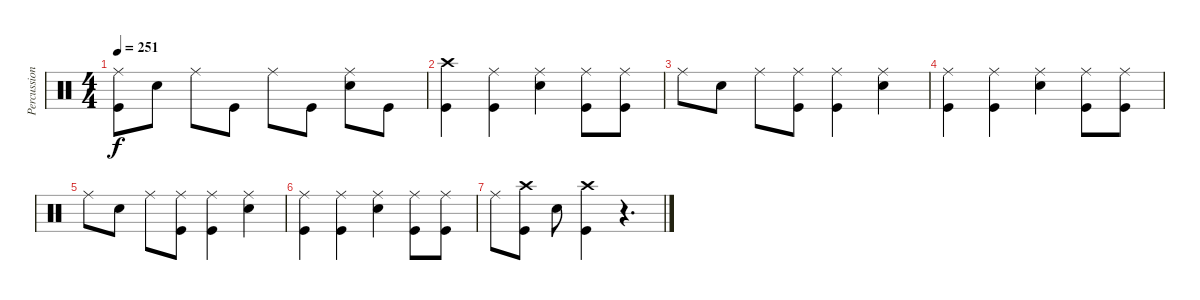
\track ("Percussion" "Percussion") {instrument percussion}
\staff {score}
\articulation defaults
\ts (4 4)
\tempo 251
\clef neutral
\ks c
("Ride (middle)" "Kick (hit)").8{dy f} "Snare (hit) 2".8 "Ride (middle)".8 "Kick (hit)".8 "Ride (middle)".8 "Kick (hit)".8 ("Ride (middle)" "Snare (hit) 2").8 "Kick (hit)".8 |
("Crash high (hit)" "Kick (hit)").4 ("Ride (middle)" "Kick (hit)").4 ("Ride (middle)" "Snare (hit) 2").4 ("Ride (middle)" "Kick (hit)").8 ("Ride (middle)" "Kick (hit)").8 |
"Ride (middle)".8 "Snare (hit) 2".8 "Ride (middle)".8 ("Ride (middle)" "Kick (hit)").8 ("Ride (middle)" "Kick (hit)").4 ("Ride (middle)" "Snare (hit) 2").4 |
("Ride (middle)" "Kick (hit)").4 ("Ride (middle)" "Kick (hit)").4 ("Ride (middle)" "Snare (hit) 2").4 ("Ride (middle)" "Kick (hit)").8 ("Ride (middle)" "Kick (hit)").8 |
"Ride (middle)".8 "Snare (hit) 2".8 "Ride (middle)".8 ("Ride (middle)" "Kick (hit)").8 ("Ride (middle)" "Kick (hit)").4 ("Ride (middle)" "Snare (hit) 2").4 |
("Ride (middle)" "Kick (hit)").4 ("Ride (middle)" "Kick (hit)").4 ("Ride (middle)" "Snare (hit) 2").4 ("Ride (middle)" "Kick (hit)").8 ("Ride (middle)" "Kick (hit)").8 |
"Ride (middle)".8 ("Crash high (hit)" "Kick (hit)").8 "Snare (hit) 2".8 ("Crash high (hit)" "Kick (hit)").4 r.4{d}
